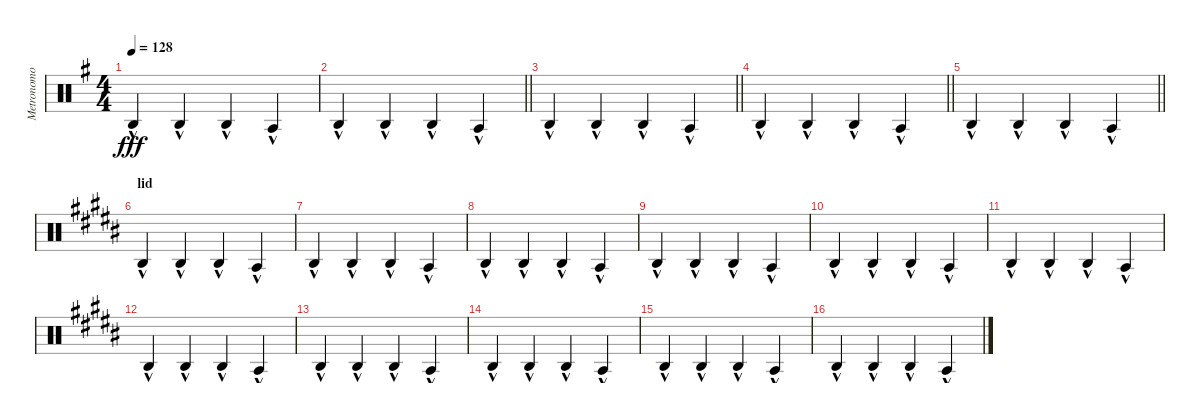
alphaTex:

\track ("Metronomo" "Metronomo") {mute instrument percussion}
\staff {score}
\articulation defaults
\ts (4 4)
\tempo 128
\clef neutral
\ks eminor "Agogo high (hit)"{hac}.4{dy fff} "Agogo high (hit)"{hac}.4 "Agogo high (hit)"{hac}.4 "Agogo tow (hit)"{hac}.4
|
\barLineRight lightlight "Agogo high (hit)"{hac}.4 "Agogo high (hit)"{hac}.4 "Agogo high (hit)"{hac}.4 "Agogo tow (hit)"{hac}.4
|
\barLineRight lightlight "Agogo high (hit)"{hac}.4 "Agogo high (hit)"{hac}.4 "Agogo high (hit)"{hac}.4 "Agogo tow (hit)"{hac}.4
|
\barLineRight lightlight "Agogo high (hit)"{hac}.4 "Agogo high (hit)"{hac}.4 "Agogo high (hit)"{hac}.4 "Agogo tow (hit)"{hac}.4
|
\barLineRight lightlight "Agogo high (hit)"{hac}.4 "Agogo high (hit)"{hac}.4 "Agogo high (hit)"{hac}.4 "Agogo tow (hit)"{hac}.4
|
\section ("" "lid")
\ks b "Agogo high (hit)"{hac}.4 "Agogo high (hit)"{hac}.4 "Agogo high (hit)"{hac}.4 "Agogo tow (hit)"{hac}.4
|
"Agogo high (hit)"{hac}.4 "Agogo high (hit)"{hac}.4 "Agogo high (hit)"{hac}.4 "Agogo tow (hit)"{hac}.4 |
"Agogo high (hit)"{hac}.4 "Agogo high (hit)"{hac}.4 "Agogo high (hit)"{hac}.4 "Agogo tow (hit)"{hac}.4 |
"Agogo high (hit)"{hac}.4 "Agogo high (hit)"{hac}.4 "Agogo high (hit)"{hac}.4 "Agogo tow (hit)"{hac}.4 |
"Agogo high (hit)"{hac}.4 "Agogo high (hit)"{hac}.4 "Agogo high (hit)"{hac}.4 "Agogo tow (hit)"{hac}.4 |
"Agogo high (hit)"{hac}.4 "Agogo high (hit)"{hac}.4 "Agogo high (hit)"{hac}.4 "Agogo tow (hit)"{hac}.4 |
"Agogo high (hit)"{hac}.4 "Agogo high (hit)"{hac}.4 "Agogo high (hit)"{hac}.4 "Agogo tow (hit)"{hac}.4 |
"Agogo high (hit)"{hac}.4 "Agogo high (hit)"{hac}.4 "Agogo high (hit)"{hac}.4 "Agogo tow (hit)"{hac}.4 |
"Agogo high (hit)"{hac}.4 "Agogo high (hit)"{hac}.4 "Agogo high (hit)"{hac}.4 "Agogo tow (hit)"{hac}.4 |
"Agogo high (hit)"{hac}.4 "Agogo high (hit)"{hac}.4 "Agogo high (hit)"{hac}.4 "Agogo tow (hit)"{hac}.4 |
"Agogo high (hit)"{hac}.4 "Agogo high (hit)"{hac}.4 "Agogo high (hit)"{hac}.4 "Agogo tow (hit)"{hac}.4
